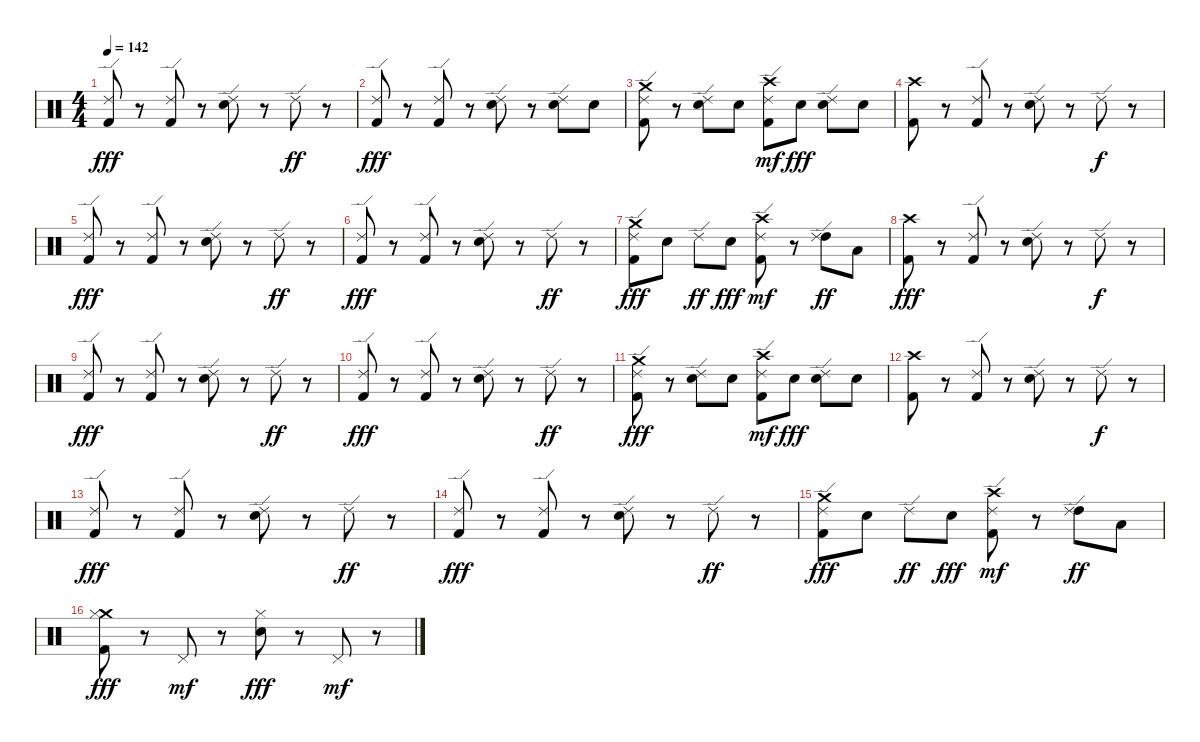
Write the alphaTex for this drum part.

\track "" {instrument percussion}
\staff {score}
\articulation defaults
\ts (4 4)
\tempo 142
\clef neutral
\ks c
("Ride (edge) 2" "Kick (hit) 2").8{dy fff} r.8 ("Ride (edge) 2" "Kick (hit) 2").8 r.8 ("Ride (edge) 2" "Electric Snare (hit)").8 r.8 "Ride (edge) 2".8{dy ff} r.8 |
("Ride (edge) 2" "Kick (hit) 2").8{dy fff} r.8 ("Ride (edge) 2" "Kick (hit) 2").8 r.8 ("Ride (edge) 2" "Electric Snare (hit)").8 r.8 ("Ride (edge) 2" "Electric Snare (hit)").8 "Electric Snare (hit)".8 |
("Crash medium (hit)" "Ride (edge) 2" "Kick (hit) 2").8 r.8 ("Ride (edge) 2" "Electric Snare (hit)").8 "Electric Snare (hit)".8 ("Ride (edge) 2" "Kick (hit) 2" "Crash high (hit)").8{dy mf} "Electric Snare (hit)".8{dy fff} ("Ride (edge) 2" "Electric Snare (hit)").8 "Electric Snare (hit)".8 |
("Kick (hit) 2" "Crash high (hit)").8 r.8 ("Ride (edge) 2" "Kick (hit) 2").8 r.8 ("Ride (edge) 2" "Electric Snare (hit)").8 r.8 "Ride (edge) 2".8{dy f} r.8 |
("Ride (edge) 2" "Kick (hit) 2").8{dy fff} r.8 ("Ride (edge) 2" "Kick (hit) 2").8 r.8 ("Ride (edge) 2" "Electric Snare (hit)").8 r.8 "Ride (edge) 2".8{dy ff} r.8 |
("Ride (edge) 2" "Kick (hit) 2").8{dy fff} r.8 ("Ride (edge) 2" "Kick (hit) 2").8 r.8 ("Ride (edge) 2" "Electric Snare (hit)").8 r.8 "Ride (edge) 2".8{dy ff} r.8 |
("Crash medium (hit)" "Ride (edge) 2" "Kick (hit) 2").8{dy fff} "Electric Snare (hit)".8 "Ride (edge) 2".8{dy ff} "Electric Snare (hit)".8{dy fff} ("Ride (edge) 2" "Kick (hit) 2" "Crash high (hit)").8{dy mf} r.8 ("High Tom (hit)" "Ride (edge) 2").8{dy ff} "Low Tom (hit)".8 |
("Kick (hit) 2" "Crash high (hit)").8{dy fff} r.8 ("Ride (edge) 2" "Kick (hit) 2").8 r.8 ("Ride (edge) 2" "Electric Snare (hit)").8 r.8 "Ride (edge) 2".8{dy f} r.8 |
("Ride (edge) 2" "Kick (hit) 2").8{dy fff} r.8 ("Ride (edge) 2" "Kick (hit) 2").8 r.8 ("Ride (edge) 2" "Electric Snare (hit)").8 r.8 "Ride (edge) 2".8{dy ff} r.8 |
("Ride (edge) 2" "Kick (hit) 2").8{dy fff} r.8 ("Ride (edge) 2" "Kick (hit) 2").8 r.8 ("Ride (edge) 2" "Electric Snare (hit)").8 r.8 "Ride (edge) 2".8{dy ff} r.8 |
("Crash medium (hit)" "Ride (edge) 2" "Kick (hit) 2").8{dy fff} r.8 ("Ride (edge) 2" "Electric Snare (hit)").8 "Electric Snare (hit)".8 ("Ride (edge) 2" "Kick (hit) 2" "Crash high (hit)").8{dy mf} "Electric Snare (hit)".8{dy fff} ("Ride (edge) 2" "Electric Snare (hit)").8 "Electric Snare (hit)".8 |
("Kick (hit) 2" "Crash high (hit)").8 r.8 ("Ride (edge) 2" "Kick (hit) 2").8 r.8 ("Ride (edge) 2" "Electric Snare (hit)").8 r.8 "Ride (edge) 2".8{dy f} r.8 |
("Ride (edge) 2" "Kick (hit) 2").8{dy fff} r.8 ("Ride (edge) 2" "Kick (hit) 2").8 r.8 ("Ride (edge) 2" "Electric Snare (hit)").8 r.8 "Ride (edge) 2".8{dy ff} r.8 |
("Ride (edge) 2" "Kick (hit) 2").8{dy fff} r.8 ("Ride (edge) 2" "Kick (hit) 2").8 r.8 ("Ride (edge) 2" "Electric Snare (hit)").8 r.8 "Ride (edge) 2".8{dy ff} r.8 |
("Crash medium (hit)" "Ride (edge) 2" "Kick (hit) 2").8{dy fff} "Electric Snare (hit)".8 "Ride (edge) 2".8{dy ff} "Electric Snare (hit)".8{dy fff} ("Ride (edge) 2" "Kick (hit) 2" "Crash high (hit)").8{dy mf} r.8 ("High Tom (hit)" "Ride (edge) 2").8{dy ff} "Low Tom (hit)".8 |
("Crash medium (hit)" "Kick (hit) 2" "Hi-Hat (closed)").8{dy fff} r.8 "Pedal Hi-Hat (hit)".8{dy mf} r.8 ("Electric Snare (hit)" "Hi-Hat (closed)").8{dy fff} r.8 "Pedal Hi-Hat (hit)".8{dy mf} r.8
